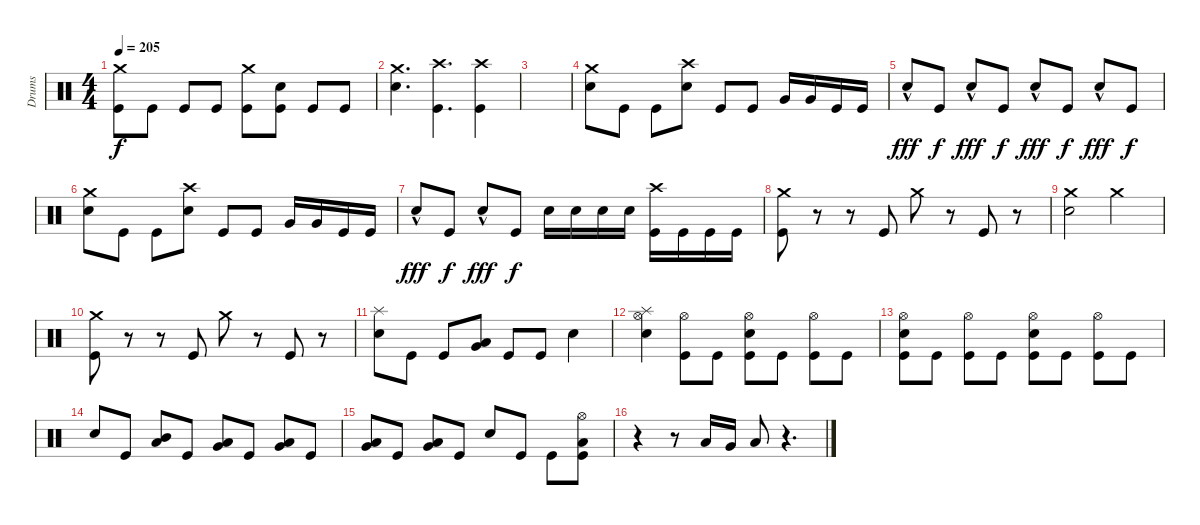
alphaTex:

\track ("Drums" "Drums") {instrument percussion}
\staff {score}
\articulation defaults
\ts (4 4)
\tempo 205
\clef neutral
\ks c
("Crash medium (hit)" "Kick (hit)").8{dy f} "Kick (hit)".8 "Kick (hit)".8 "Kick (hit)".8 ("Crash medium (hit)" "Kick (hit)").8 ("Electric Snare (hit)" "Kick (hit)").8 "Kick (hit)".8 "Kick (hit)".8 |
("Electric Snare (hit)" "Crash medium (hit)").4{d} ("Crash high (hit)" "Kick (hit)").4{d} ("Crash high (hit)" "Kick (hit)").4 |
|
("Electric Snare (hit)" "Crash medium (hit)").8 "Kick (hit)".8 "Kick (hit)".8 ("Electric Snare (hit)" "Crash high (hit)").8 "Kick (hit)".8 "Kick (hit)".8 "Very Low Tom (hit)".16 "Very Low Tom (hit)".16 "Kick (hit)".16 "Kick (hit)".16 |
"Electric Snare (hit)"{hac}.8{dy fff} "Kick (hit)".8{dy f} "Electric Snare (hit)"{hac}.8{dy fff} "Kick (hit)".8{dy f} "Electric Snare (hit)"{hac}.8{dy fff} "Kick (hit)".8{dy f} "Electric Snare (hit)"{hac}.8{dy fff} "Kick (hit)".8{dy f} |
("Electric Snare (hit)" "Crash medium (hit)").8 "Kick (hit)".8 "Kick (hit)".8 ("Electric Snare (hit)" "Crash high (hit)").8 "Kick (hit)".8 "Kick (hit)".8 "Very Low Tom (hit)".16 "Very Low Tom (hit)".16 "Kick (hit)".16 "Kick (hit)".16 |
"Electric Snare (hit)"{hac}.8{dy fff} "Kick (hit)".8{dy f} "Electric Snare (hit)"{hac}.8{dy fff} "Kick (hit)".8{dy f} "Electric Snare (hit)".16 "Electric Snare (hit)".16 "Electric Snare (hit)".16 "Electric Snare (hit)".16 ("Crash high (hit)" "Kick (hit)").16 "Kick (hit)".16 "Kick (hit)".16 "Kick (hit)".16 |
("Crash medium (hit)" "Kick (hit)").8 r.8 r.8 "Kick (hit)".8 "Crash medium (hit)".8 r.8 "Kick (hit)".8 r.8 |
("Electric Snare (hit)" "Crash medium (hit)").2 "Crash medium (hit)".2 |
("Crash medium (hit)" "Kick (hit)").8 r.8 r.8 "Kick (hit)".8 "Crash medium (hit)".8 r.8 "Kick (hit)".8 r.8 |
("Electric Snare (hit)" "Splash (hit)").8 "Kick (hit)".8 "Kick (hit)".8 ("Very Low Tom (hit)" "Low Floor Tom (hit)").8 "Kick (hit)".8 "Kick (hit)".8 "Electric Snare (hit)".4 |
("Electric Snare (hit)" "Splash (hit)" "Hi-Hat (open)").4 ("Hi-Hat (open)" "Kick (hit)").8 "Kick (hit)".8 ("Electric Snare (hit)" "Hi-Hat (open)" "Kick (hit)").8 "Kick (hit)".8 ("Hi-Hat (open)" "Kick (hit)").8 "Kick (hit)".8 |
("Electric Snare (hit)" "Hi-Hat (open)" "Kick (hit)").8 "Kick (hit)".8 ("Hi-Hat (open)" "Kick (hit)").8 "Kick (hit)".8 ("Electric Snare (hit)" "Hi-Hat (open)" "Kick (hit)").8 "Kick (hit)".8 ("Hi-Hat (open)" "Kick (hit)").8 "Kick (hit)".8 |
"Electric Snare (hit)".8 "Kick (hit)".8 ("Low Tom (hit)" "Mid Tom (hit)").8 "Kick (hit)".8 ("Very Low Tom (hit)" "Low Tom (hit)").8 "Kick (hit)".8 ("Low Floor Tom (hit)" "Very Low Tom (hit)").8 "Kick (hit)".8 |
("Very Low Tom (hit)" "Low Tom (hit)").8 "Kick (hit)".8 ("Low Floor Tom (hit)" "Very Low Tom (hit)").8 "Kick (hit)".8 "Electric Snare (hit)".8 "Kick (hit)".8 "Kick (hit)".8 ("Low Floor Tom (hit)" "Hi-Hat (open)" "Kick (hit)").8 |
r.4 r.8 "Low Tom (hit)".16 "Very Low Tom (hit)".16 "Low Floor Tom (hit)".8 r.4{d}
